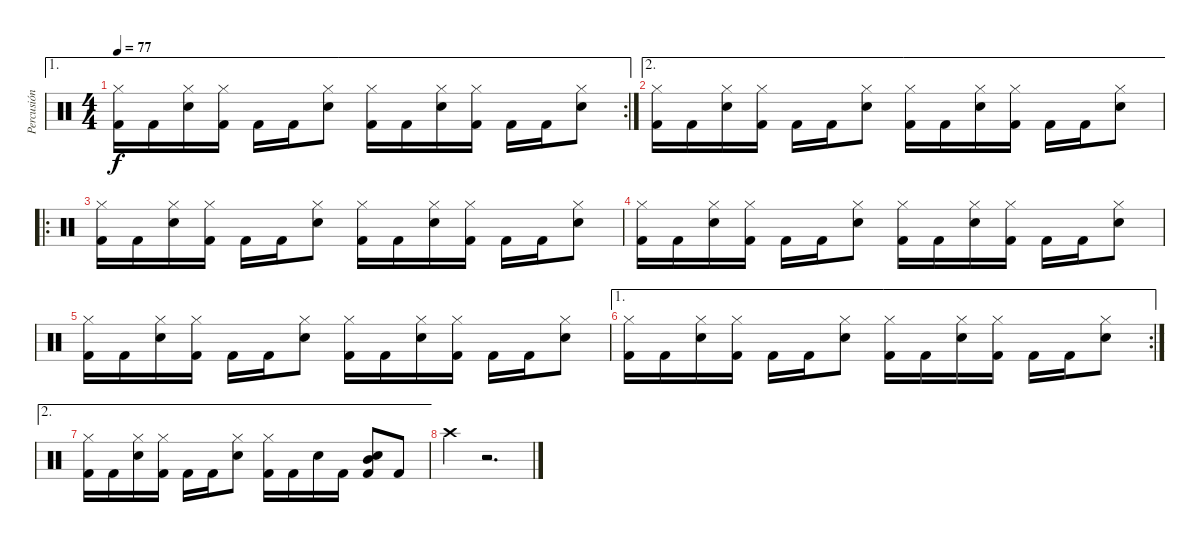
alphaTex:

\track ("Percusión" "Percusión") {instrument percussion}
\staff {score}
\articulation defaults
\ae 1
\rc 2
\ts (4 4)
\tempo 77
\clef neutral
\ks c
("Kick (hit) 2" "Hi-Hat (closed)").16{dy f} "Kick (hit) 2".16 ("Electric Snare (hit)" "Hi-Hat (closed)").16 ("Kick (hit) 2" "Hi-Hat (closed)").16 "Kick (hit) 2".16 "Kick (hit) 2".16 ("Electric Snare (hit)" "Hi-Hat (closed)").8 ("Kick (hit) 2" "Hi-Hat (closed)").16 "Kick (hit) 2".16 ("Electric Snare (hit)" "Hi-Hat (closed)").16 ("Kick (hit) 2" "Hi-Hat (closed)").16 "Kick (hit) 2".16 "Kick (hit) 2".16 ("Electric Snare (hit)" "Hi-Hat (closed)").8 |
\ae 2
("Kick (hit) 2" "Hi-Hat (closed)").16 "Kick (hit) 2".16 ("Electric Snare (hit)" "Hi-Hat (closed)").16 ("Kick (hit) 2" "Hi-Hat (closed)").16 "Kick (hit) 2".16 "Kick (hit) 2".16 ("Electric Snare (hit)" "Hi-Hat (closed)").8 ("Kick (hit) 2" "Hi-Hat (closed)").16 "Kick (hit) 2".16 ("Electric Snare (hit)" "Hi-Hat (closed)").16 ("Kick (hit) 2" "Hi-Hat (closed)").16 "Kick (hit) 2".16 "Kick (hit) 2".16 ("Electric Snare (hit)" "Hi-Hat (closed)").8 |
\ro
("Kick (hit) 2" "Hi-Hat (closed)").16 "Kick (hit) 2".16 ("Hi-Hat (closed)" "Electric Snare (hit)").16 ("Kick (hit) 2" "Hi-Hat (closed)").16 "Kick (hit) 2".16 "Kick (hit) 2".16 ("Electric Snare (hit)" "Hi-Hat (closed)").8 ("Kick (hit) 2" "Hi-Hat (closed)").16 "Kick (hit) 2".16 ("Electric Snare (hit)" "Hi-Hat (closed)").16 ("Kick (hit) 2" "Hi-Hat (closed)").16 "Kick (hit) 2".16 "Kick (hit) 2".16 ("Electric Snare (hit)" "Hi-Hat (closed)").8 |
("Kick (hit) 2" "Hi-Hat (closed)").16 "Kick (hit) 2".16 ("Electric Snare (hit)" "Hi-Hat (closed)").16 ("Kick (hit) 2" "Hi-Hat (closed)").16 "Kick (hit) 2".16 "Kick (hit) 2".16 ("Electric Snare (hit)" "Hi-Hat (closed)").8 ("Kick (hit) 2" "Hi-Hat (closed)").16 "Kick (hit) 2".16 ("Electric Snare (hit)" "Hi-Hat (closed)").16 ("Kick (hit) 2" "Hi-Hat (closed)").16 "Kick (hit) 2".16 "Kick (hit) 2".16 ("Electric Snare (hit)" "Hi-Hat (closed)").8 |
("Kick (hit) 2" "Hi-Hat (closed)").16 "Kick (hit) 2".16 ("Electric Snare (hit)" "Hi-Hat (closed)").16 ("Kick (hit) 2" "Hi-Hat (closed)").16 "Kick (hit) 2".16 "Kick (hit) 2".16 ("Electric Snare (hit)" "Hi-Hat (closed)").8 ("Kick (hit) 2" "Hi-Hat (closed)").16 "Kick (hit) 2".16 ("Electric Snare (hit)" "Hi-Hat (closed)").16 ("Kick (hit) 2" "Hi-Hat (closed)").16 "Kick (hit) 2".16 "Kick (hit) 2".16 ("Electric Snare (hit)" "Hi-Hat (closed)").8 |
\ae 1
\rc 2
("Kick (hit) 2" "Hi-Hat (closed)").16 "Kick (hit) 2".16 ("Electric Snare (hit)" "Hi-Hat (closed)").16 ("Kick (hit) 2" "Hi-Hat (closed)").16 "Kick (hit) 2".16 "Kick (hit) 2".16 ("Electric Snare (hit)" "Hi-Hat (closed)").8 ("Kick (hit) 2" "Hi-Hat (closed)").16 "Kick (hit) 2".16 ("Electric Snare (hit)" "Hi-Hat (closed)").16 ("Kick (hit) 2" "Hi-Hat (closed)").16 "Kick (hit) 2".16 "Kick (hit) 2".16 ("Electric Snare (hit)" "Hi-Hat (closed)").8 |
\ae 2
("Kick (hit) 2" "Hi-Hat (closed)").16 "Kick (hit) 2".16 ("Electric Snare (hit)" "Hi-Hat (closed)").16 ("Kick (hit) 2" "Hi-Hat (closed)").16 "Kick (hit) 2".16 "Kick (hit) 2".16 ("Electric Snare (hit)" "Hi-Hat (closed)").8 ("Kick (hit) 2" "Hi-Hat (closed)").16 "Kick (hit) 2".16 "Electric Snare (hit)".16 "Kick (hit) 2".16 ("Electric Snare (hit)" "Kick (hit) 2" "Mid Tom (hit)").8 "Kick (hit) 2".8 |
"Crash high (hit)".4 r.2{d}
